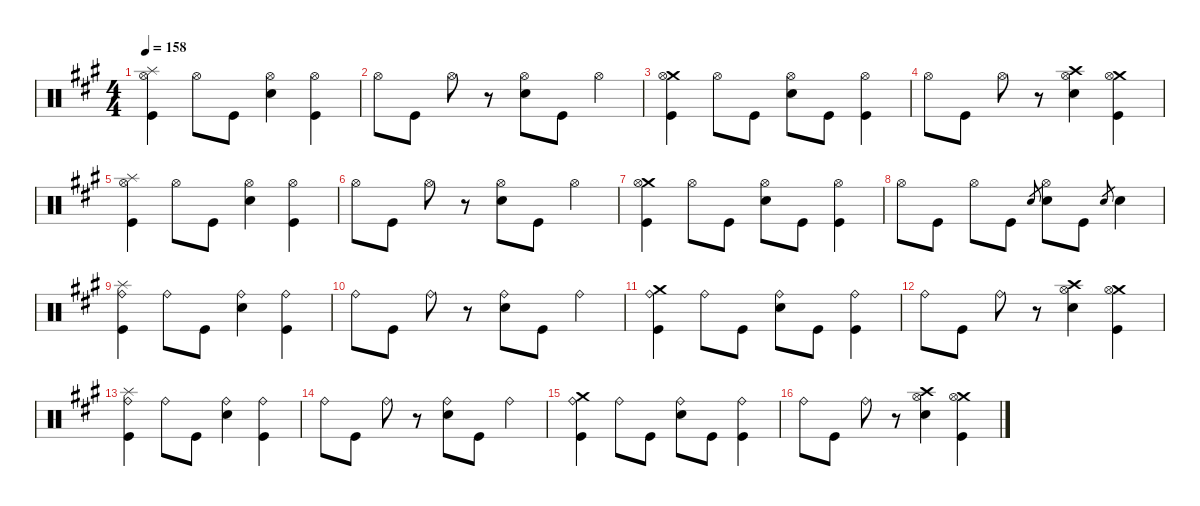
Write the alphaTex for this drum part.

\defaultSystemsLayout 4
\hideDynamics
\bracketExtendMode nobrackets
\singleTrackTrackNamePolicy hidden
\multiTrackTrackNamePolicy hidden
\firstSystemTrackNameMode fullname
\firstSystemTrackNameOrientation horizontal
\otherSystemsTrackNameOrientation horizontal
\track ("Drums" "drm.") {instrument percussion}
\staff {score}
\articulation defaults
\ts (4 4)
\tempo 158
\clef neutral
\ks f#minor
("Splash (hit)"{acc forcenatural} "Hi-Hat (open)"{acc forcenatural} "Kick (hit)"{acc forcenatural}).4{dy f beam Down} "Hi-Hat (open)"{acc forcenatural}.8{beam Down} "Kick (hit)"{acc forcenatural}.8{dy mp beam Down} ("Hi-Hat (open)"{acc forcenatural} "Snare (hit) 2"{acc forcenatural}).4{dy f beam Down} ("Hi-Hat (open)"{acc forcenatural} "Kick (hit)"{acc forcenatural}).4{beam Down} |
"Hi-Hat (open)"{acc forcenatural}.8{beam Down} "Kick (hit)"{acc forcenatural}.8{beam Down} "Hi-Hat (open)"{acc forcenatural}.8{beam Down} r.8{beam Down} ("Hi-Hat (open)"{acc forcenatural} "Snare (hit) 2"{acc forcenatural}).8{beam Down} "Kick (hit)"{acc forcenatural}.8{beam Down} "Hi-Hat (open)"{acc forcenatural}.4{beam Down} |
("Crash medium (hit)"{acc forcenatural} "Hi-Hat (open)"{acc forcenatural} "Kick (hit)"{acc forcenatural}).4{beam Down} "Hi-Hat (open)"{acc forcenatural}.8{beam Down} "Kick (hit)"{acc forcenatural}.8{dy mp beam Down} ("Hi-Hat (open)"{acc forcenatural} "Snare (hit) 2"{acc forcenatural}).8{dy f beam Down} "Kick (hit)"{acc forcenatural}.8{dy mf beam Down} ("Hi-Hat (open)"{acc forcenatural} "Kick (hit)"{acc forcenatural}).4{dy f beam Down} |
"Hi-Hat (open)"{acc forcenatural}.8{beam Down} "Kick (hit)"{acc forcenatural}.8{beam Down} "Hi-Hat (open)"{acc forcenatural}.8{beam Down} r.8{beam Down} ("Crash high (hit)"{acc forcenatural} "Hi-Hat (open)"{acc forcenatural} "Snare (hit) 2"{acc forcenatural}).4{dy mf beam Down} ("Crash medium (hit)"{acc forcenatural} "Hi-Hat (open)"{acc forcenatural} "Kick (hit)"{acc forcenatural}).4{dy f beam Down} |
("Splash (hit)"{acc forcenatural} "Hi-Hat (open)"{acc forcenatural} "Kick (hit)"{acc forcenatural}).4{beam Down} "Hi-Hat (open)"{acc forcenatural}.8{beam Down} "Kick (hit)"{acc forcenatural}.8{dy mp beam Down} ("Hi-Hat (open)"{acc forcenatural} "Snare (hit) 2"{acc forcenatural}).4{dy f beam Down} ("Hi-Hat (open)"{acc forcenatural} "Kick (hit)"{acc forcenatural}).4{beam Down} |
"Hi-Hat (open)"{acc forcenatural}.8{beam Down} "Kick (hit)"{acc forcenatural}.8{beam Down} "Hi-Hat (open)"{acc forcenatural}.8{beam Down} r.8{beam Down} ("Hi-Hat (open)"{acc forcenatural} "Snare (hit) 2"{acc forcenatural}).8{beam Down} "Kick (hit)"{acc forcenatural}.8{beam Down} "Hi-Hat (open)"{acc forcenatural}.4{beam Down} |
("Crash medium (hit)"{acc forcenatural} "Hi-Hat (open)"{acc forcenatural} "Kick (hit)"{acc forcenatural}).4{beam Down} "Hi-Hat (open)"{acc forcenatural}.8{beam Down} "Kick (hit)"{acc forcenatural}.8{dy mp beam Down} ("Hi-Hat (open)"{acc forcenatural} "Snare (hit) 2"{acc forcenatural}).8{dy f beam Down} "Kick (hit)"{acc forcenatural}.8{dy mf beam Down} ("Hi-Hat (open)"{acc forcenatural} "Kick (hit)"{acc forcenatural}).4{dy f beam Down} |
"Hi-Hat (open)"{acc forcenatural}.8{beam Down} "Kick (hit)"{acc forcenatural}.8{beam Down} "Hi-Hat (open)"{acc forcenatural}.8{beam Down} "Kick (hit)"{acc forcenatural}.8{beam Down} "Electric Snare (hit)"{acc forcenatural}.8{gr dy mf beam Up} ("Hi-Hat (open)"{acc forcenatural} "Snare (hit) 2"{acc forcenatural}).8{dy f beam Down} "Kick (hit)"{acc forcenatural}.8{beam Down} "Electric Snare (hit)"{acc forcenatural}.8{gr dy mf beam Up} "Snare (hit) 2"{acc forcenatural}.4{dy f beam Down} |
("Splash (hit)"{acc forcenatural} "Ride (bell)"{acc forcenatural} "Kick (hit)"{acc forcenatural}).4{beam Down} "Ride (bell)"{acc forcenatural}.8{beam Down} "Kick (hit)"{acc forcenatural}.8{dy mp beam Down} ("Ride (bell)"{acc forcenatural} "Snare (hit) 2"{acc forcenatural}).4{dy f beam Down} ("Ride (bell)"{acc forcenatural} "Kick (hit)"{acc forcenatural}).4{beam Down} |
"Ride (bell)"{acc forcenatural}.8{beam Down} "Kick (hit)"{acc forcenatural}.8{beam Down} "Ride (bell)"{acc forcenatural}.8{beam Down} r.8{beam Down} ("Ride (bell)"{acc forcenatural} "Snare (hit) 2"{acc forcenatural}).8{beam Down} "Kick (hit)"{acc forcenatural}.8{beam Down} "Ride (bell)"{acc forcenatural}.4{beam Down} |
("Crash medium (hit)"{acc forcenatural} "Ride (bell)"{acc forcenatural} "Kick (hit)"{acc forcenatural}).4{beam Down} "Ride (bell)"{acc forcenatural}.8{beam Down} "Kick (hit)"{acc forcenatural}.8{dy mp beam Down} ("Ride (bell)"{acc forcenatural} "Snare (hit) 2"{acc forcenatural}).8{dy f beam Down} "Kick (hit)"{acc forcenatural}.8{dy mf beam Down} ("Ride (bell)"{acc forcenatural} "Kick (hit)"{acc forcenatural}).4{dy f beam Down} |
"Ride (bell)"{acc forcenatural}.8{beam Down} "Kick (hit)"{acc forcenatural}.8{beam Down} "Ride (bell)"{acc forcenatural}.8{beam Down} r.8{beam Down} ("Crash high (hit)"{acc forcenatural} "Hi-Hat (open)"{acc forcenatural} "Snare (hit) 2"{acc forcenatural}).4{dy mf beam Down} ("Crash medium (hit)"{acc forcenatural} "Hi-Hat (open)"{acc forcenatural} "Kick (hit)"{acc forcenatural}).4{dy f beam Down} |
("Splash (hit)"{acc forcenatural} "Ride (bell)"{acc forcenatural} "Kick (hit)"{acc forcenatural}).4{beam Down} "Ride (bell)"{acc forcenatural}.8{beam Down} "Kick (hit)"{acc forcenatural}.8{dy mp beam Down} ("Ride (bell)"{acc forcenatural} "Snare (hit) 2"{acc forcenatural}).4{dy f beam Down} ("Ride (bell)"{acc forcenatural} "Kick (hit)"{acc forcenatural}).4{beam Down} |
"Ride (bell)"{acc forcenatural}.8{beam Down} "Kick (hit)"{acc forcenatural}.8{beam Down} "Ride (bell)"{acc forcenatural}.8{beam Down} r.8{beam Down} ("Ride (bell)"{acc forcenatural} "Snare (hit) 2"{acc forcenatural}).8{beam Down} "Kick (hit)"{acc forcenatural}.8{beam Down} "Ride (bell)"{acc forcenatural}.4{beam Down} |
("Crash medium (hit)"{acc forcenatural} "Ride (bell)"{acc forcenatural} "Kick (hit)"{acc forcenatural}).4{beam Down} "Ride (bell)"{acc forcenatural}.8{beam Down} "Kick (hit)"{acc forcenatural}.8{dy mp beam Down} ("Ride (bell)"{acc forcenatural} "Snare (hit) 2"{acc forcenatural}).8{dy f beam Down} "Kick (hit)"{acc forcenatural}.8{dy mf beam Down} ("Ride (bell)"{acc forcenatural} "Kick (hit)"{acc forcenatural}).4{dy f beam Down} |
"Ride (bell)"{acc forcenatural}.8{beam Down} "Kick (hit)"{acc forcenatural}.8{beam Down} "Ride (bell)"{acc forcenatural}.8{beam Down} r.8{beam Down} ("Crash high (hit)"{acc forcenatural} "Hi-Hat (open)"{acc forcenatural} "Snare (hit) 2"{acc forcenatural}).4{dy mf beam Down} ("Crash medium (hit)"{acc forcenatural} "Hi-Hat (open)"{acc forcenatural} "Kick (hit)"{acc forcenatural}).4{dy f beam Down}
